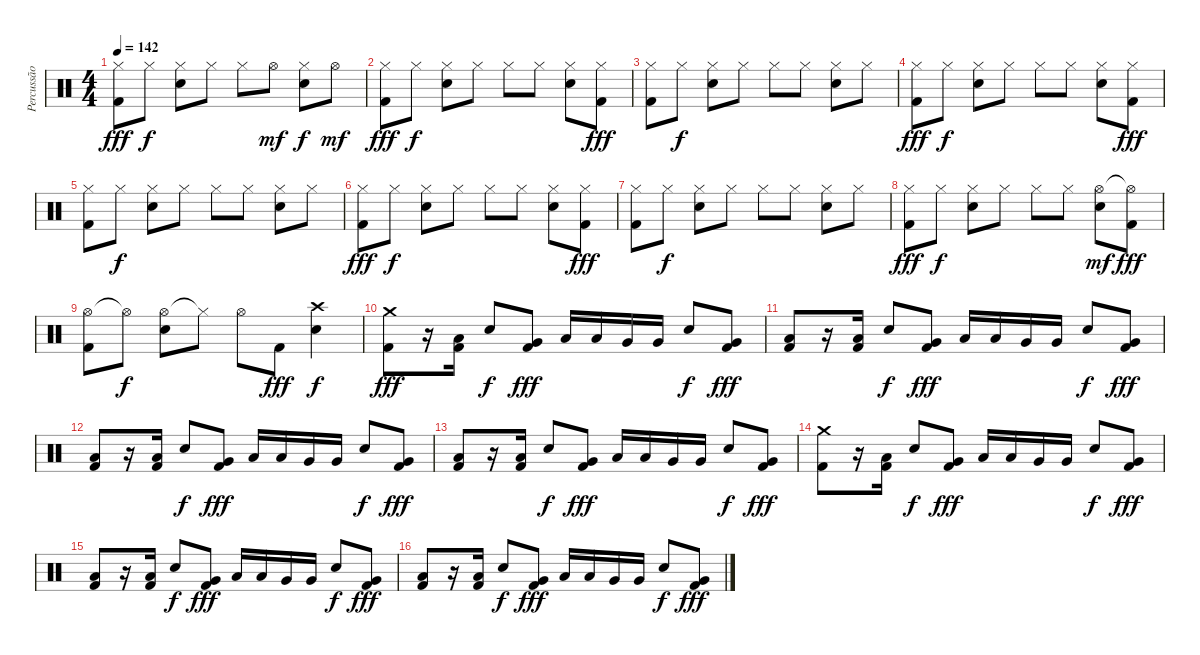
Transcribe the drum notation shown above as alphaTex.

\track ("Percussão" "Percussão") {instrument percussion}
\staff {score}
\articulation defaults
\ts (4 4)
\tempo 142
\clef neutral
\ks c
("Hi-Hat (closed)" "Kick (hit) 2").8{dy fff} "Hi-Hat (closed)".8{dy f} ("Hi-Hat (closed)" "Electric Snare (hit)").8 "Hi-Hat (closed)".8 "Hi-Hat (closed)".8 "Hi-Hat (open)".8{dy mf} ("Hi-Hat (closed)" "Electric Snare (hit)").8{dy f} "Hi-Hat (open)".8{dy mf} |
("Hi-Hat (closed)" "Kick (hit) 2").8{dy fff} "Hi-Hat (closed)".8{dy f} ("Hi-Hat (closed)" "Electric Snare (hit)").8 "Hi-Hat (closed)".8 "Hi-Hat (closed)".8 "Hi-Hat (closed)".8 ("Hi-Hat (closed)" "Electric Snare (hit)").8 ("Hi-Hat (closed)" "Kick (hit) 2").8{dy fff} |
("Hi-Hat (closed)" "Kick (hit) 2").8 "Hi-Hat (closed)".8{dy f} ("Hi-Hat (closed)" "Electric Snare (hit)").8 "Hi-Hat (closed)".8 "Hi-Hat (closed)".8 "Hi-Hat (closed)".8 ("Hi-Hat (closed)" "Electric Snare (hit)").8 "Hi-Hat (closed)".8 |
("Hi-Hat (closed)" "Kick (hit) 2").8{dy fff} "Hi-Hat (closed)".8{dy f} ("Hi-Hat (closed)" "Electric Snare (hit)").8 "Hi-Hat (closed)".8 "Hi-Hat (closed)".8 "Hi-Hat (closed)".8 ("Hi-Hat (closed)" "Electric Snare (hit)").8 ("Hi-Hat (closed)" "Kick (hit) 2").8{dy fff} |
("Hi-Hat (closed)" "Kick (hit) 2").8 "Hi-Hat (closed)".8{dy f} ("Hi-Hat (closed)" "Electric Snare (hit)").8 "Hi-Hat (closed)".8 "Hi-Hat (closed)".8 "Hi-Hat (closed)".8 ("Hi-Hat (closed)" "Electric Snare (hit)").8 "Hi-Hat (closed)".8 |
("Hi-Hat (closed)" "Kick (hit) 2").8{dy fff} "Hi-Hat (closed)".8{dy f} ("Hi-Hat (closed)" "Electric Snare (hit)").8 "Hi-Hat (closed)".8 "Hi-Hat (closed)".8 "Hi-Hat (closed)".8 ("Hi-Hat (closed)" "Electric Snare (hit)").8 ("Hi-Hat (closed)" "Kick (hit) 2").8{dy fff} |
("Hi-Hat (closed)" "Kick (hit) 2").8 "Hi-Hat (closed)".8{dy f} ("Hi-Hat (closed)" "Electric Snare (hit)").8 "Hi-Hat (closed)".8 "Hi-Hat (closed)".8 "Hi-Hat (closed)".8 ("Hi-Hat (closed)" "Electric Snare (hit)").8 "Hi-Hat (closed)".8 |
("Hi-Hat (closed)" "Kick (hit) 2").8{dy fff} "Hi-Hat (closed)".8{dy f} ("Hi-Hat (closed)" "Electric Snare (hit)").8 "Hi-Hat (closed)".8 "Hi-Hat (closed)".8 "Hi-Hat (closed)".8 ("Hi-Hat (open)" "Electric Snare (hit)").8{dy mf} ("Hi-Hat (open)"{t} "Kick (hit) 2").8{dy fff} |
("Hi-Hat (open)" "Kick (hit) 2").8 "Hi-Hat (open)"{t}.8{dy f} ("Hi-Hat (open)" "Electric Snare (hit)").8 "Hi-Hat (closed)"{t}.8 "Hi-Hat (open)".8 "Kick (hit) 2".8{dy fff} ("Crash high (hit)" "Electric Snare (hit)").4{dy f} |
("Crash medium (hit)" "Kick (hit) 2").8{dy fff} r.16 ("Low Tom (hit)" "Kick (hit) 2").16 "Electric Snare (hit)".8{dy f} ("Very Low Tom (hit)" "Kick (hit) 2").8{dy fff} "Low Tom (hit)".16 "Low Tom (hit)".16 "Very Low Tom (hit)".16 "Very Low Tom (hit)".16 "Electric Snare (hit)".8{dy f} ("Very Low Tom (hit)" "Kick (hit) 2").8{dy fff} |
("Low Tom (hit)" "Kick (hit) 2").8 r.16 ("Low Tom (hit)" "Kick (hit) 2").16 "Electric Snare (hit)".8{dy f} ("Very Low Tom (hit)" "Kick (hit) 2").8{dy fff} "Low Tom (hit)".16 "Low Tom (hit)".16 "Very Low Tom (hit)".16 "Very Low Tom (hit)".16 "Electric Snare (hit)".8{dy f} ("Very Low Tom (hit)" "Kick (hit) 2").8{dy fff} |
("Low Tom (hit)" "Kick (hit) 2").8 r.16 ("Low Tom (hit)" "Kick (hit) 2").16 "Electric Snare (hit)".8{dy f} ("Very Low Tom (hit)" "Kick (hit) 2").8{dy fff} "Low Tom (hit)".16 "Low Tom (hit)".16 "Very Low Tom (hit)".16 "Very Low Tom (hit)".16 "Electric Snare (hit)".8{dy f} ("Very Low Tom (hit)" "Kick (hit) 2").8{dy fff} |
("Low Tom (hit)" "Kick (hit) 2").8 r.16 ("Low Tom (hit)" "Kick (hit) 2").16 "Electric Snare (hit)".8{dy f} ("Very Low Tom (hit)" "Kick (hit) 2").8{dy fff} "Low Tom (hit)".16 "Low Tom (hit)".16 "Very Low Tom (hit)".16 "Very Low Tom (hit)".16 "Electric Snare (hit)".8{dy f} ("Very Low Tom (hit)" "Kick (hit) 2").8{dy fff} |
("Crash medium (hit)" "Kick (hit) 2").8 r.16 ("Low Tom (hit)" "Kick (hit) 2").16 "Electric Snare (hit)".8{dy f} ("Very Low Tom (hit)" "Kick (hit) 2").8{dy fff} "Low Tom (hit)".16 "Low Tom (hit)".16 "Very Low Tom (hit)".16 "Very Low Tom (hit)".16 "Electric Snare (hit)".8{dy f} ("Very Low Tom (hit)" "Kick (hit) 2").8{dy fff} |
("Low Tom (hit)" "Kick (hit) 2").8 r.16 ("Low Tom (hit)" "Kick (hit) 2").16 "Electric Snare (hit)".8{dy f} ("Very Low Tom (hit)" "Kick (hit) 2").8{dy fff} "Low Tom (hit)".16 "Low Tom (hit)".16 "Very Low Tom (hit)".16 "Very Low Tom (hit)".16 "Electric Snare (hit)".8{dy f} ("Very Low Tom (hit)" "Kick (hit) 2").8{dy fff} |
("Low Tom (hit)" "Kick (hit) 2").8 r.16 ("Low Tom (hit)" "Kick (hit) 2").16 "Electric Snare (hit)".8{dy f} ("Very Low Tom (hit)" "Kick (hit) 2").8{dy fff} "Low Tom (hit)".16 "Low Tom (hit)".16 "Very Low Tom (hit)".16 "Very Low Tom (hit)".16 "Electric Snare (hit)".8{dy f} ("Very Low Tom (hit)" "Kick (hit) 2").8{dy fff}
